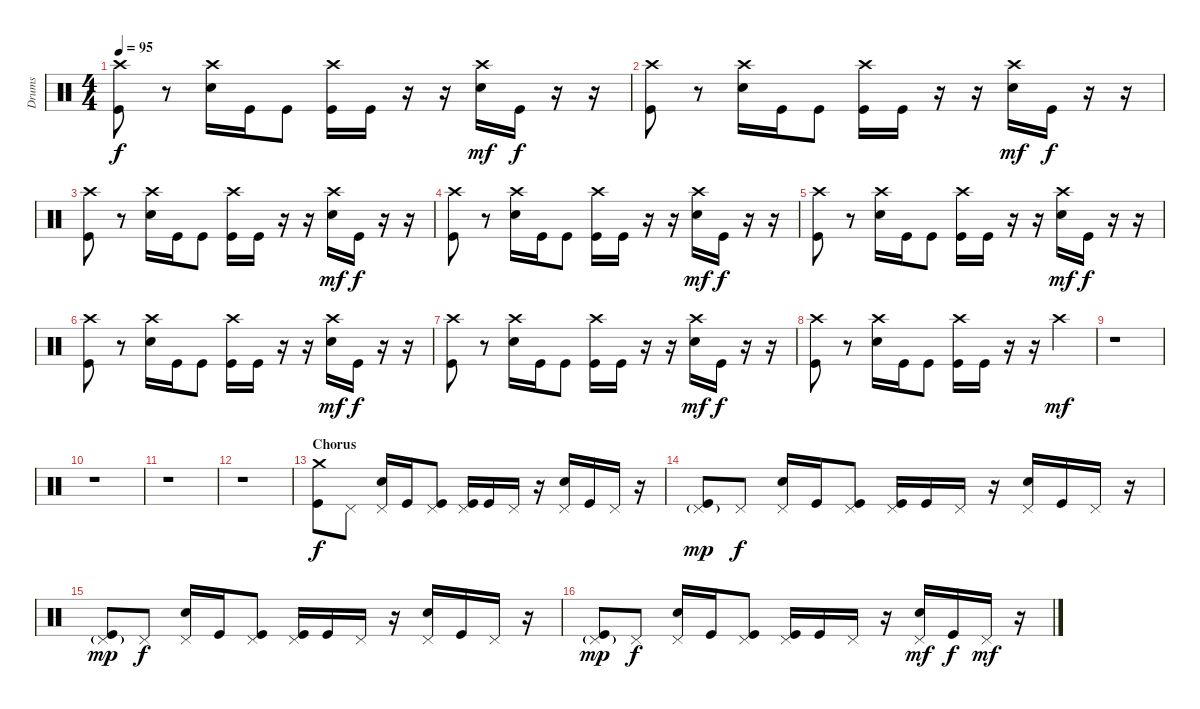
\track ("Drums" "Drums") {instrument percussion}
\staff {score}
\articulation defaults
\ts (4 4)
\section ("" "")
\tempo 95
\clef neutral
\ks c
("Crash high (hit)" "Kick (hit)").8{dy f} r.8 ("Crash high (hit)" "Snare (hit) 2").16 "Kick (hit)".16 "Kick (hit)".8 ("Crash high (hit)" "Kick (hit)").16 "Kick (hit)".16 r.16 r.16 ("Crash high (hit)" "Snare (hit) 2").16{dy mf} "Kick (hit)".16{dy f} r.16 r.16 |
("Crash high (hit)" "Kick (hit)").8 r.8 ("Crash high (hit)" "Snare (hit) 2").16 "Kick (hit)".16 "Kick (hit)".8 ("Crash high (hit)" "Kick (hit)").16 "Kick (hit)".16 r.16 r.16 ("Crash high (hit)" "Snare (hit) 2").16{dy mf} "Kick (hit)".16{dy f} r.16 r.16 |
("Crash high (hit)" "Kick (hit)").8 r.8 ("Crash high (hit)" "Snare (hit) 2").16 "Kick (hit)".16 "Kick (hit)".8 ("Crash high (hit)" "Kick (hit)").16 "Kick (hit)".16 r.16 r.16 ("Crash high (hit)" "Snare (hit) 2").16{dy mf} "Kick (hit)".16{dy f} r.16 r.16 |
("Crash high (hit)" "Kick (hit)").8 r.8 ("Crash high (hit)" "Snare (hit) 2").16 "Kick (hit)".16 "Kick (hit)".8 ("Crash high (hit)" "Kick (hit)").16 "Kick (hit)".16 r.16 r.16 ("Crash high (hit)" "Snare (hit) 2").16{dy mf} "Kick (hit)".16{dy f} r.16 r.16 |
("Crash high (hit)" "Kick (hit)").8 r.8 ("Crash high (hit)" "Snare (hit) 2").16 "Kick (hit)".16 "Kick (hit)".8 ("Crash high (hit)" "Kick (hit)").16 "Kick (hit)".16 r.16 r.16 ("Crash high (hit)" "Snare (hit) 2").16{dy mf} "Kick (hit)".16{dy f} r.16 r.16 |
("Crash high (hit)" "Kick (hit)").8 r.8 ("Crash high (hit)" "Snare (hit) 2").16 "Kick (hit)".16 "Kick (hit)".8 ("Crash high (hit)" "Kick (hit)").16 "Kick (hit)".16 r.16 r.16 ("Crash high (hit)" "Snare (hit) 2").16{dy mf} "Kick (hit)".16{dy f} r.16 r.16 |
("Crash high (hit)" "Kick (hit)").8 r.8 ("Crash high (hit)" "Snare (hit) 2").16 "Kick (hit)".16 "Kick (hit)".8 ("Crash high (hit)" "Kick (hit)").16 "Kick (hit)".16 r.16 r.16 ("Crash high (hit)" "Snare (hit) 2").16{dy mf} "Kick (hit)".16{dy f} r.16 r.16 |
("Crash high (hit)" "Kick (hit)").8 r.8 ("Crash high (hit)" "Snare (hit) 2").16 "Kick (hit)".16 "Kick (hit)".8 ("Crash high (hit)" "Kick (hit)").16 "Kick (hit)".16 r.16 r.16 "Crash high (hit)".4{dy mf} |
r.1 |
r.1 |
r.1 |
r.1 |
\section ("" "Chorus")
("Crash medium (hit)" "Kick (hit)").8{dy f} "Pedal Hi-Hat (hit)".8 ("Pedal Hi-Hat (hit)" "Snare (hit) 2").16 "Kick (hit)".16 ("Pedal Hi-Hat (hit)" "Kick (hit)").8 ("Pedal Hi-Hat (hit)" "Kick (hit)").16 "Kick (hit)".16 "Pedal Hi-Hat (hit)".16 r.16 ("Pedal Hi-Hat (hit)" "Snare (hit) 2").16 "Kick (hit)".16 "Pedal Hi-Hat (hit)".16 r.16 |
("Pedal Hi-Hat (hit)"{g} "Kick (hit)").8{dy mp} "Pedal Hi-Hat (hit)".8{dy f} ("Pedal Hi-Hat (hit)" "Snare (hit) 2").16 "Kick (hit)".16 ("Pedal Hi-Hat (hit)" "Kick (hit)").8 ("Pedal Hi-Hat (hit)" "Kick (hit)").16 "Kick (hit)".16 "Pedal Hi-Hat (hit)".16 r.16 ("Pedal Hi-Hat (hit)" "Snare (hit) 2").16 "Kick (hit)".16 "Pedal Hi-Hat (hit)".16 r.16 |
("Pedal Hi-Hat (hit)"{g} "Kick (hit)").8{dy mp} "Pedal Hi-Hat (hit)".8{dy f} ("Pedal Hi-Hat (hit)" "Snare (hit) 2").16 "Kick (hit)".16 ("Pedal Hi-Hat (hit)" "Kick (hit)").8 ("Pedal Hi-Hat (hit)" "Kick (hit)").16 "Kick (hit)".16 "Pedal Hi-Hat (hit)".16 r.16 ("Pedal Hi-Hat (hit)" "Snare (hit) 2").16 "Kick (hit)".16 "Pedal Hi-Hat (hit)".16 r.16 |
("Pedal Hi-Hat (hit)"{g} "Kick (hit)").8{dy mp} "Pedal Hi-Hat (hit)".8{dy f} ("Pedal Hi-Hat (hit)" "Snare (hit) 2").16 "Kick (hit)".16 ("Pedal Hi-Hat (hit)" "Kick (hit)").8 ("Pedal Hi-Hat (hit)" "Kick (hit)").16 "Kick (hit)".16 "Pedal Hi-Hat (hit)".16 r.16 ("Pedal Hi-Hat (hit)" "Snare (hit) 2").16{dy mf} "Kick (hit)".16{dy f} "Pedal Hi-Hat (hit)".16{dy mf} r.16
